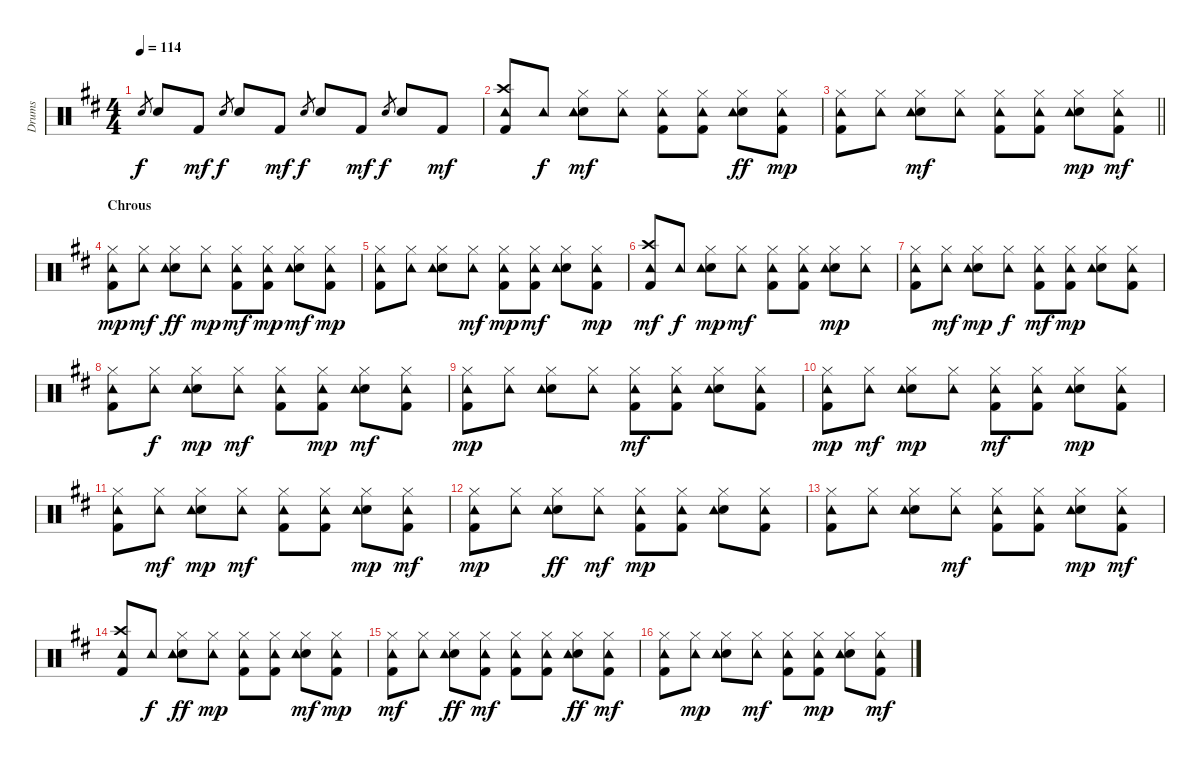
\track ("Drums" "Drums") {instrument percussion}
\staff {score}
\articulation defaults
\ts (4 4)
\tempo 114
\clef neutral
\ks d "Snare (hit) 2".8{gr dy f} "Snare (hit) 2".8 "Kick (hit) 2".8{dy mf} "Snare (hit) 2".8{gr dy f} "Snare (hit) 2".8 "Kick (hit) 2".8{dy mf} "Snare (hit) 2".8{gr dy f} "Snare (hit) 2".8 "Kick (hit) 2".8{dy mf} "Snare (hit) 2".8{gr dy f} "Snare (hit) 2".8 "Kick (hit) 2".8{dy mf}
|
("Kick (hit) 2" "Crash high (hit)" "Tambourine (hit)").8 "Tambourine (hit)".8{dy f} ("Snare (hit) 2" "Hi-Hat (closed)" "Tambourine (hit)").8{dy mf} ("Hi-Hat (closed)" "Tambourine (hit)").8 ("Kick (hit) 2" "Hi-Hat (closed)" "Tambourine (hit)").8 ("Kick (hit) 2" "Hi-Hat (closed)" "Tambourine (hit)").8 ("Snare (hit) 2" "Hi-Hat (closed)" "Tambourine (hit)").8{dy ff} ("Kick (hit) 2" "Hi-Hat (closed)" "Tambourine (hit)").8{dy mp} |
\barLineRight lightlight
("Kick (hit) 2" "Hi-Hat (closed)" "Tambourine (hit)").8 ("Hi-Hat (closed)" "Tambourine (hit)").8 ("Snare (hit) 2" "Hi-Hat (closed)" "Tambourine (hit)").8{dy mf} ("Hi-Hat (closed)" "Tambourine (hit)").8 ("Kick (hit) 2" "Hi-Hat (closed)" "Tambourine (hit)").8 ("Kick (hit) 2" "Hi-Hat (closed)" "Tambourine (hit)").8 ("Snare (hit) 2" "Hi-Hat (closed)" "Tambourine (hit)").8{dy mp} ("Kick (hit) 2" "Hi-Hat (closed)" "Tambourine (hit)").8{dy mf} |
\section ("" "Chrous")
("Kick (hit) 2" "Hi-Hat (closed)" "Tambourine (hit)").8{dy mp} ("Hi-Hat (closed)" "Tambourine (hit)").8{dy mf} ("Snare (hit) 2" "Hi-Hat (closed)" "Tambourine (hit)").8{dy ff} ("Hi-Hat (closed)" "Tambourine (hit)").8{dy mp} ("Kick (hit) 2" "Hi-Hat (closed)" "Tambourine (hit)").8{dy mf} ("Kick (hit) 2" "Hi-Hat (closed)" "Tambourine (hit)").8{dy mp} ("Snare (hit) 2" "Hi-Hat (closed)" "Tambourine (hit)").8{dy mf} ("Kick (hit) 2" "Hi-Hat (closed)" "Tambourine (hit)").8{dy mp} |
("Kick (hit) 2" "Hi-Hat (closed)" "Tambourine (hit)").8 ("Hi-Hat (closed)" "Tambourine (hit)").8 ("Snare (hit) 2" "Hi-Hat (closed)" "Tambourine (hit)").8 ("Hi-Hat (closed)" "Tambourine (hit)").8{dy mf} ("Kick (hit) 2" "Hi-Hat (closed)" "Tambourine (hit)").8{dy mp} ("Kick (hit) 2" "Hi-Hat (closed)" "Tambourine (hit)").8{dy mf} ("Snare (hit) 2" "Hi-Hat (closed)" "Tambourine (hit)").8 ("Kick (hit) 2" "Hi-Hat (closed)" "Tambourine (hit)").8{dy mp} |
("Kick (hit) 2" "Crash high (hit)" "Tambourine (hit)").8{dy mf} "Tambourine (hit)".8{dy f} ("Snare (hit) 2" "Hi-Hat (closed)" "Tambourine (hit)").8{dy mp} ("Hi-Hat (closed)" "Tambourine (hit)").8{dy mf} ("Kick (hit) 2" "Hi-Hat (closed)" "Tambourine (hit)").8 ("Kick (hit) 2" "Hi-Hat (closed)" "Tambourine (hit)").8 ("Snare (hit) 2" "Hi-Hat (closed)" "Tambourine (hit)").8{dy mp} ("Hi-Hat (closed)" "Tambourine (hit)").8 |
("Kick (hit) 2" "Hi-Hat (closed)" "Tambourine (hit)").8 ("Hi-Hat (closed)" "Tambourine (hit)").8{dy mf} ("Snare (hit) 2" "Hi-Hat (closed)" "Tambourine (hit)").8{dy mp} ("Hi-Hat (closed)" "Tambourine (hit)").8{dy f} ("Kick (hit) 2" "Hi-Hat (closed)" "Tambourine (hit)").8{dy mf} ("Kick (hit) 2" "Hi-Hat (closed)" "Tambourine (hit)").8{dy mp} ("Snare (hit) 2" "Hi-Hat (closed)" "Tambourine (hit)").8 ("Kick (hit) 2" "Hi-Hat (closed)" "Tambourine (hit)").8 |
("Kick (hit) 2" "Hi-Hat (closed)" "Tambourine (hit)").8 ("Hi-Hat (closed)" "Tambourine (hit)").8{dy f} ("Snare (hit) 2" "Hi-Hat (closed)" "Tambourine (hit)").8{dy mp} ("Hi-Hat (closed)" "Tambourine (hit)").8{dy mf} ("Kick (hit) 2" "Hi-Hat (closed)" "Tambourine (hit)").8 ("Kick (hit) 2" "Hi-Hat (closed)" "Tambourine (hit)").8{dy mp} ("Snare (hit) 2" "Hi-Hat (closed)" "Tambourine (hit)").8{dy mf} ("Kick (hit) 2" "Hi-Hat (closed)" "Tambourine (hit)").8 |
("Kick (hit) 2" "Hi-Hat (closed)" "Tambourine (hit)").8{dy mp} ("Hi-Hat (closed)" "Tambourine (hit)").8 ("Snare (hit) 2" "Hi-Hat (closed)" "Tambourine (hit)").8 ("Hi-Hat (closed)" "Tambourine (hit)").8 ("Kick (hit) 2" "Hi-Hat (closed)" "Tambourine (hit)").8{dy mf} ("Kick (hit) 2" "Hi-Hat (closed)" "Tambourine (hit)").8 ("Snare (hit) 2" "Hi-Hat (closed)" "Tambourine (hit)").8 ("Kick (hit) 2" "Hi-Hat (closed)" "Tambourine (hit)").8 |
("Kick (hit) 2" "Hi-Hat (closed)" "Tambourine (hit)").8{dy mp} ("Hi-Hat (closed)" "Tambourine (hit)").8{dy mf} ("Snare (hit) 2" "Hi-Hat (closed)" "Tambourine (hit)").8{dy mp} ("Hi-Hat (closed)" "Tambourine (hit)").8 ("Kick (hit) 2" "Hi-Hat (closed)" "Tambourine (hit)").8{dy mf} ("Kick (hit) 2" "Hi-Hat (closed)" "Tambourine (hit)").8 ("Snare (hit) 2" "Hi-Hat (closed)" "Tambourine (hit)").8{dy mp} ("Kick (hit) 2" "Hi-Hat (closed)" "Tambourine (hit)").8 |
("Kick (hit) 2" "Hi-Hat (closed)" "Tambourine (hit)").8 ("Hi-Hat (closed)" "Tambourine (hit)").8{dy mf} ("Snare (hit) 2" "Hi-Hat (closed)" "Tambourine (hit)").8{dy mp} ("Hi-Hat (closed)" "Tambourine (hit)").8{dy mf} ("Kick (hit) 2" "Hi-Hat (closed)" "Tambourine (hit)").8 ("Kick (hit) 2" "Hi-Hat (closed)" "Tambourine (hit)").8 ("Snare (hit) 2" "Hi-Hat (closed)" "Tambourine (hit)").8{dy mp} ("Kick (hit) 2" "Hi-Hat (closed)" "Tambourine (hit)").8{dy mf} |
("Kick (hit) 2" "Hi-Hat (closed)" "Tambourine (hit)").8{dy mp} ("Hi-Hat (closed)" "Tambourine (hit)").8 ("Snare (hit) 2" "Hi-Hat (closed)" "Tambourine (hit)").8{dy ff} ("Hi-Hat (closed)" "Tambourine (hit)").8{dy mf} ("Kick (hit) 2" "Hi-Hat (closed)" "Tambourine (hit)").8{dy mp} ("Kick (hit) 2" "Hi-Hat (closed)" "Tambourine (hit)").8 ("Snare (hit) 2" "Hi-Hat (closed)" "Tambourine (hit)").8 ("Kick (hit) 2" "Hi-Hat (closed)" "Tambourine (hit)").8 |
("Kick (hit) 2" "Hi-Hat (closed)" "Tambourine (hit)").8 ("Hi-Hat (closed)" "Tambourine (hit)").8 ("Snare (hit) 2" "Hi-Hat (closed)" "Tambourine (hit)").8 ("Hi-Hat (closed)" "Tambourine (hit)").8{dy mf} ("Kick (hit) 2" "Hi-Hat (closed)" "Tambourine (hit)").8 ("Kick (hit) 2" "Hi-Hat (closed)" "Tambourine (hit)").8 ("Snare (hit) 2" "Hi-Hat (closed)" "Tambourine (hit)").8{dy mp} ("Kick (hit) 2" "Hi-Hat (closed)" "Tambourine (hit)").8{dy mf} |
("Kick (hit) 2" "Crash high (hit)" "Tambourine (hit)").8 "Tambourine (hit)".8{dy f} ("Snare (hit) 2" "Hi-Hat (closed)" "Tambourine (hit)").8{dy ff} ("Hi-Hat (closed)" "Tambourine (hit)").8{dy mp} ("Kick (hit) 2" "Hi-Hat (closed)" "Tambourine (hit)").8 ("Kick (hit) 2" "Hi-Hat (closed)" "Tambourine (hit)").8 ("Snare (hit) 2" "Hi-Hat (closed)" "Tambourine (hit)").8{dy mf} ("Kick (hit) 2" "Hi-Hat (closed)" "Tambourine (hit)").8{dy mp} |
("Kick (hit) 2" "Hi-Hat (closed)" "Tambourine (hit)").8{dy mf} ("Hi-Hat (closed)" "Tambourine (hit)").8 ("Snare (hit) 2" "Hi-Hat (closed)" "Tambourine (hit)").8{dy ff} ("Kick (hit) 2" "Hi-Hat (closed)" "Tambourine (hit)").8{dy mf} ("Kick (hit) 2" "Hi-Hat (closed)" "Tambourine (hit)").8 ("Kick (hit) 2" "Hi-Hat (closed)" "Tambourine (hit)").8 ("Snare (hit) 2" "Hi-Hat (closed)" "Tambourine (hit)").8{dy ff} ("Kick (hit) 2" "Hi-Hat (closed)" "Tambourine (hit)").8{dy mf} |
("Kick (hit) 2" "Hi-Hat (closed)" "Tambourine (hit)").8 ("Hi-Hat (closed)" "Tambourine (hit)").8{dy mp} ("Snare (hit) 2" "Hi-Hat (closed)" "Tambourine (hit)").8 ("Hi-Hat (closed)" "Tambourine (hit)").8{dy mf} ("Kick (hit) 2" "Hi-Hat (closed)" "Tambourine (hit)").8 ("Kick (hit) 2" "Hi-Hat (closed)" "Tambourine (hit)").8{dy mp} ("Snare (hit) 2" "Hi-Hat (closed)" "Tambourine (hit)").8 ("Kick (hit) 2" "Hi-Hat (closed)" "Tambourine (hit)").8{dy mf}
